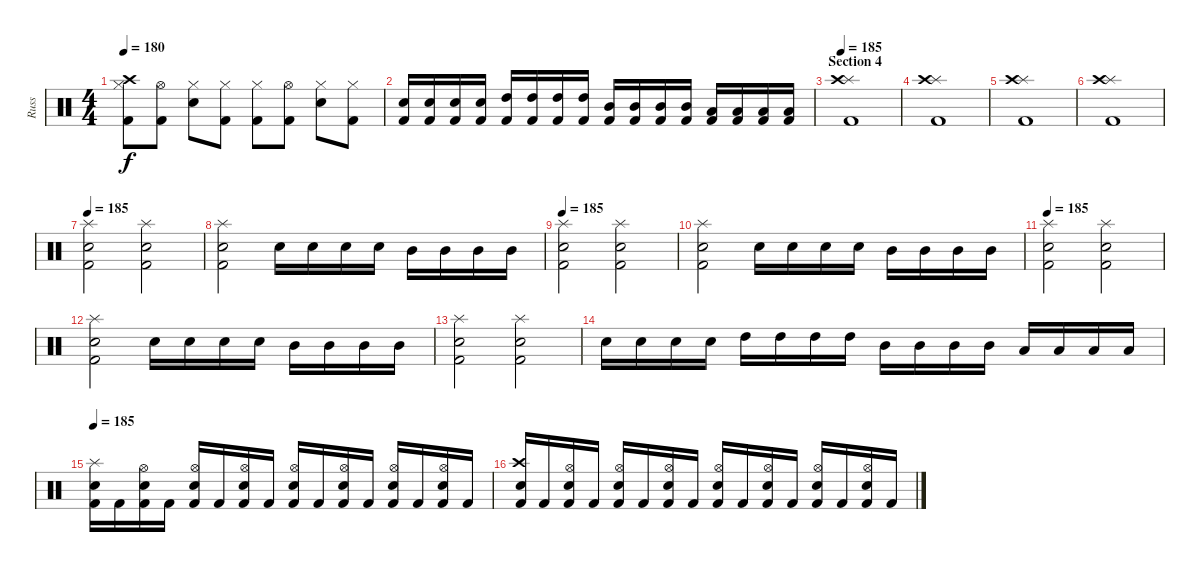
\track ("Russ" "Russ") {instrument percussion}
\staff {score}
\articulation defaults
\ts (4 4)
\tempo 180
\clef neutral
\ks c
("Kick (hit) 2" "Crash high (hit)" "Hi-Hat (closed)").8{dy f} ("Kick (hit) 2" "Hi-Hat (open)").8 ("Snare (hit) 2" "Hi-Hat (closed)").8 ("Kick (hit) 2" "Hi-Hat (closed)").8 ("Kick (hit) 2" "Hi-Hat (closed)").8 ("Kick (hit) 2" "Hi-Hat (open)").8 ("Snare (hit) 2" "Hi-Hat (closed)").8 ("Kick (hit) 2" "Hi-Hat (closed)").8 |
("Kick (hit) 2" "Snare (hit) 2").16 ("Kick (hit) 2" "Snare (hit) 2").16 ("Kick (hit) 2" "Snare (hit) 2").16 ("Kick (hit) 2" "Snare (hit) 2").16 ("Kick (hit) 2" "High Tom (hit)").16 ("Kick (hit) 2" "High Tom (hit)").16 ("Kick (hit) 2" "High Tom (hit)").16 ("Kick (hit) 2" "High Tom (hit)").16 ("Kick (hit) 2" "Mid Tom (hit)").16 ("Kick (hit) 2" "Mid Tom (hit)").16 ("Kick (hit) 2" "Mid Tom (hit)").16 ("Kick (hit) 2" "Mid Tom (hit)").16 ("Kick (hit) 2" "Low Floor Tom (hit)").16 ("Kick (hit) 2" "Low Floor Tom (hit)").16 ("Kick (hit) 2" "Low Floor Tom (hit)").16 ("Kick (hit) 2" "Low Floor Tom (hit)").16 |
\section ("" "Section 4")
\tempo 185
("Kick (hit) 2" "Splash (hit)" "Crash high (hit)").1 |
("Kick (hit) 2" "Splash (hit)" "Crash high (hit)").1 |
("Kick (hit) 2" "Splash (hit)" "Crash high (hit)").1 |
("Kick (hit) 2" "Splash (hit)" "Crash high (hit)").1 |
\tempo 185
("Kick (hit) 2" "Snare (hit) 2" "Splash (hit)").2 ("Kick (hit) 2" "Snare (hit) 2" "Splash (hit)").2 |
("Kick (hit) 2" "Snare (hit) 2" "Splash (hit)").2 "Snare (hit) 2".16 "Snare (hit) 2".16 "Snare (hit) 2".16 "Snare (hit) 2".16 "Mid Tom (hit)".16 "Mid Tom (hit)".16 "Mid Tom (hit)".16 "Mid Tom (hit)".16 |
\tempo 185
("Kick (hit) 2" "Snare (hit) 2" "Splash (hit)").2 ("Kick (hit) 2" "Snare (hit) 2" "Splash (hit)").2 |
("Kick (hit) 2" "Snare (hit) 2" "Splash (hit)").2 "Snare (hit) 2".16 "Snare (hit) 2".16 "Snare (hit) 2".16 "Snare (hit) 2".16 "Mid Tom (hit)".16 "Mid Tom (hit)".16 "Mid Tom (hit)".16 "Mid Tom (hit)".16 |
\tempo 185
("Kick (hit) 2" "Snare (hit) 2" "Splash (hit)").2 ("Kick (hit) 2" "Snare (hit) 2" "Splash (hit)").2 |
("Kick (hit) 2" "Snare (hit) 2" "Splash (hit)").2 "Snare (hit) 2".16 "Snare (hit) 2".16 "Snare (hit) 2".16 "Snare (hit) 2".16 "Mid Tom (hit)".16 "Mid Tom (hit)".16 "Mid Tom (hit)".16 "Mid Tom (hit)".16 |
("Kick (hit) 2" "Snare (hit) 2" "Splash (hit)").2 ("Kick (hit) 2" "Snare (hit) 2" "Splash (hit)").2 |
"Snare (hit) 2".16 "Snare (hit) 2".16 "Snare (hit) 2".16 "Snare (hit) 2".16 "High Tom (hit)".16 "High Tom (hit)".16 "High Tom (hit)".16 "High Tom (hit)".16 "Mid Tom (hit)".16 "Mid Tom (hit)".16 "Mid Tom (hit)".16 "Mid Tom (hit)".16 "Low Floor Tom (hit)".16 "Low Floor Tom (hit)".16 "Low Floor Tom (hit)".16 "Low Floor Tom (hit)".16 |
\tempo 185
("Kick (hit) 2" "Snare (hit) 2" "Splash (hit)").16 "Kick (hit) 2".16 ("Kick (hit) 2" "Snare (hit) 2" "Hi-Hat (open)").16 "Kick (hit) 2".16 ("Kick (hit) 2" "Snare (hit) 2" "Hi-Hat (open)").16 "Kick (hit) 2".16 ("Kick (hit) 2" "Snare (hit) 2" "Hi-Hat (open)").16 "Kick (hit) 2".16 ("Kick (hit) 2" "Snare (hit) 2" "Hi-Hat (open)").16 "Kick (hit) 2".16 ("Kick (hit) 2" "Snare (hit) 2" "Hi-Hat (open)").16 "Kick (hit) 2".16 ("Kick (hit) 2" "Snare (hit) 2" "Hi-Hat (open)").16 "Kick (hit) 2".16 ("Kick (hit) 2" "Snare (hit) 2" "Hi-Hat (open)").16 "Kick (hit) 2".16 |
("Kick (hit) 2" "Snare (hit) 2" "Crash high (hit)").16 "Kick (hit) 2".16 ("Kick (hit) 2" "Snare (hit) 2" "Hi-Hat (open)").16 "Kick (hit) 2".16 ("Kick (hit) 2" "Snare (hit) 2" "Hi-Hat (open)").16 "Kick (hit) 2".16 ("Kick (hit) 2" "Snare (hit) 2" "Hi-Hat (open)").16 "Kick (hit) 2".16 ("Kick (hit) 2" "Snare (hit) 2" "Hi-Hat (open)").16 "Kick (hit) 2".16 ("Kick (hit) 2" "Snare (hit) 2" "Hi-Hat (open)").16 "Kick (hit) 2".16 ("Kick (hit) 2" "Snare (hit) 2" "Hi-Hat (open)").16 "Kick (hit) 2".16 ("Kick (hit) 2" "Snare (hit) 2" "Hi-Hat (open)").16 "Kick (hit) 2".16
